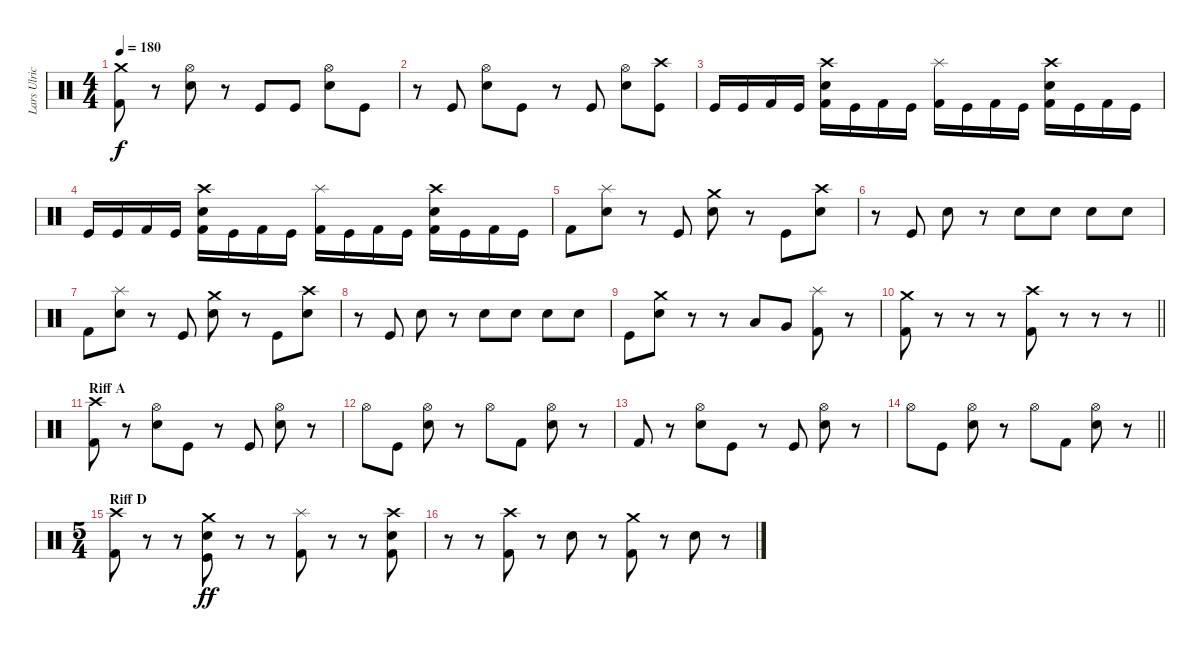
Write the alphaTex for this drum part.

\track ("Lars Ulrich" "Lars Ulric") {instrument percussion}
\staff {score}
\articulation defaults
\ts (4 4)
\tempo 180
\clef neutral
\ks c
("Crash medium (hit)" "Kick (hit) 2").8{dy f} r.8 ("Hi-Hat (open)" "Electric Snare (hit)").8 r.8 "Kick (hit)".8 "Kick (hit)".8 ("Hi-Hat (open)" "Electric Snare (hit)").8 "Kick (hit)".8 |
r.8 "Kick (hit)".8 ("Hi-Hat (open)" "Electric Snare (hit)").8 "Kick (hit)".8 r.8 "Kick (hit)".8 ("Hi-Hat (open)" "Electric Snare (hit)").8 ("Crash high (hit)" "Kick (hit)").8 |
"Kick (hit)".16 "Kick (hit)".16 "Kick (hit) 2".16 "Kick (hit)".16 ("Crash high (hit)" "Electric Snare (hit)" "Kick (hit) 2").16 "Kick (hit)".16 "Kick (hit) 2".16 "Kick (hit)".16 ("Splash (hit)" "Kick (hit) 2").16 "Kick (hit)".16 "Kick (hit) 2".16 "Kick (hit)".16 ("Crash high (hit)" "Electric Snare (hit)" "Kick (hit) 2").16 "Kick (hit)".16 "Kick (hit) 2".16 "Kick (hit)".16 |
"Kick (hit)".16 "Kick (hit)".16 "Kick (hit) 2".16 "Kick (hit)".16 ("Crash high (hit)" "Electric Snare (hit)" "Kick (hit) 2").16 "Kick (hit)".16 "Kick (hit) 2".16 "Kick (hit)".16 ("Splash (hit)" "Kick (hit) 2").16 "Kick (hit)".16 "Kick (hit) 2".16 "Kick (hit)".16 ("Crash high (hit)" "Electric Snare (hit)" "Kick (hit) 2").16 "Kick (hit)".16 "Kick (hit) 2".16 "Kick (hit)".16 |
"Kick (hit) 2".8 ("Splash (hit)" "Electric Snare (hit)").8 r.8 "Kick (hit)".8 ("Crash medium (hit)" "Electric Snare (hit)").8 r.8 "Kick (hit)".8 ("Crash high (hit)" "Electric Snare (hit)").8 |
r.8 "Kick (hit)".8 "Electric Snare (hit)".8 r.8 "Electric Snare (hit)".8 "Electric Snare (hit)".8 "Electric Snare (hit)".8 "Electric Snare (hit)".8 |
"Kick (hit) 2".8 ("Splash (hit)" "Electric Snare (hit)").8 r.8 "Kick (hit)".8 ("Crash medium (hit)" "Electric Snare (hit)").8 r.8 "Kick (hit)".8 ("Crash high (hit)" "Electric Snare (hit)").8 |
r.8 "Kick (hit)".8 "Electric Snare (hit)".8 r.8 "Electric Snare (hit)".8 "Electric Snare (hit)".8 "Electric Snare (hit)".8 "Electric Snare (hit)".8 |
"Kick (hit)".8 ("Crash medium (hit)" "Electric Snare (hit)").8 r.8 r.8 "Low Tom (hit)".8 "Very Low Tom (hit)".8 ("Splash (hit)" "Kick (hit) 2").8 r.8 |
\barLineRight lightlight
("Crash medium (hit)" "Kick (hit) 2").8 r.8 r.8 r.8 ("Crash high (hit)" "Kick (hit) 2").8 r.8 r.8 r.8 |
\section ("" "Riff A")
("Crash high (hit)" "Kick (hit) 2").8 r.8 ("Hi-Hat (open)" "Electric Snare (hit)").8 "Kick (hit)".8 r.8 "Kick (hit)".8 ("Hi-Hat (open)" "Electric Snare (hit)").8 r.8 |
"Hi-Hat (open)".8 "Kick (hit)".8 ("Hi-Hat (open)" "Electric Snare (hit)").8 r.8 "Hi-Hat (open)".8 "Kick (hit) 2".8 ("Hi-Hat (open)" "Electric Snare (hit)").8 r.8 |
"Kick (hit) 2".8 r.8 ("Hi-Hat (open)" "Electric Snare (hit)").8 "Kick (hit)".8 r.8 "Kick (hit)".8 ("Hi-Hat (open)" "Electric Snare (hit)").8 r.8 |
\barLineRight lightlight "Hi-Hat (open)".8 "Kick (hit)".8
("Hi-Hat (open)" "Electric Snare (hit)").8 r.8 "Hi-Hat (open)".8 "Kick (hit) 2".8 ("Hi-Hat (open)" "Electric Snare (hit)").8 r.8 |
\ts (5 4)
\section ("" "Riff D")
("Crash high (hit)" "Kick (hit) 2").8 r.8 r.8 ("Crash medium (hit)" "Electric Snare (hit)" "Kick (hit)").8{dy ff} r.8 r.8 ("Splash (hit)" "Kick (hit) 2").8 r.8 r.8 ("Crash high (hit)" "Electric Snare (hit)" "Kick (hit) 2").8 |
r.8 r.8 ("Crash high (hit)" "Kick (hit) 2").8 r.8 "Electric Snare (hit)".8 r.8 ("Crash medium (hit)" "Kick (hit) 2").8 r.8 "Electric Snare (hit)".8 r.8
